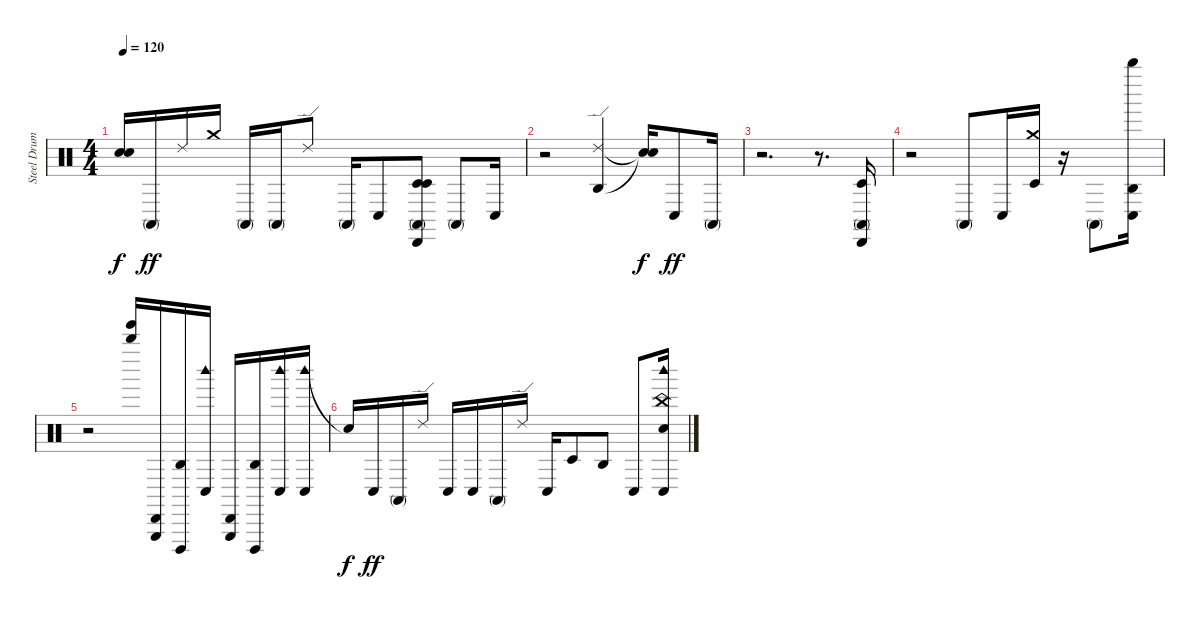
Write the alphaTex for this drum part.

\track ("Steel Drums" "Steel Drum") {instrument percussion}
\staff {score}
\articulation defaults
\ts (4 4)
\tempo 120
\clef neutral
\ks c
("Snare (hit)"{t} "Snare (hit)"{t}).16{dy f} "Conga high (mute)".16{dy ff} "Ride (edge) 2".16 "Crash medium (hit)".16 "Conga high (mute)".16 "Conga high (mute)".16 "Ride (edge) 2".8 "Conga high (mute)".16 "Conga low (hit)".8 ("Timbale low (hit)" "Timbale low (hit)" "Conga high (mute)" "Cabasa (hit)").8 "Conga high (mute)".8 "Conga low (hit)".16 |
r.2 ("Agogo high (hit)" "Ride (edge) 2").4 ("Snare (hit)"{t} "Snare (hit)"{t}).16{dy f} "Conga low (hit)".8{dy ff} "Conga high (mute)".16 |
r.2{d} r.8{d} ("Timbale low (hit)" "Conga high (mute)" "Cabasa (hit)").16 |
r.2 "Conga high (mute)".8 "Conga low (hit)".16 ("Timbale low (hit)" "Crash medium (hit)").16 r.16 "Conga high (mute)".8 ("Conga low (hit)" "Agogo high (hit)" "Whistle high (hit)").16 |
r.2 ("Tinkle Bell (hit)" "Whistle high (hit)").16 ("Cabasa (hit)" "Triangle (hit)").16 ("Agogo high (hit)" "Cuica (open)").16 ("Woodblock high (hit)" "Conga low (hit)").16 ("Cabasa (hit)" "Triangle (hit)").16 ("Cuica (open)" "Agogo high (hit)").16 ("Conga low (hit)" "Woodblock high (hit)").16 ("Woodblock high (hit)" "Conga low (hit)").16 |
"Snare (hit)"{t}.16{dy f} "Conga low (hit)".16{dy ff} "Conga high (mute)".16 "Ride (edge) 2".16 "Conga low (hit)".16 "Conga low (hit)".16 "Conga high (mute)".16 "Ride (edge) 2".16 "Conga low (hit)".16 "Timbale low (hit)".8 "Agogo high (hit)".8 "Conga low (hit)".8 ("Snare (hit)" "Conga low (hit)" "Woodblock high (hit)" "China (hit)").16
